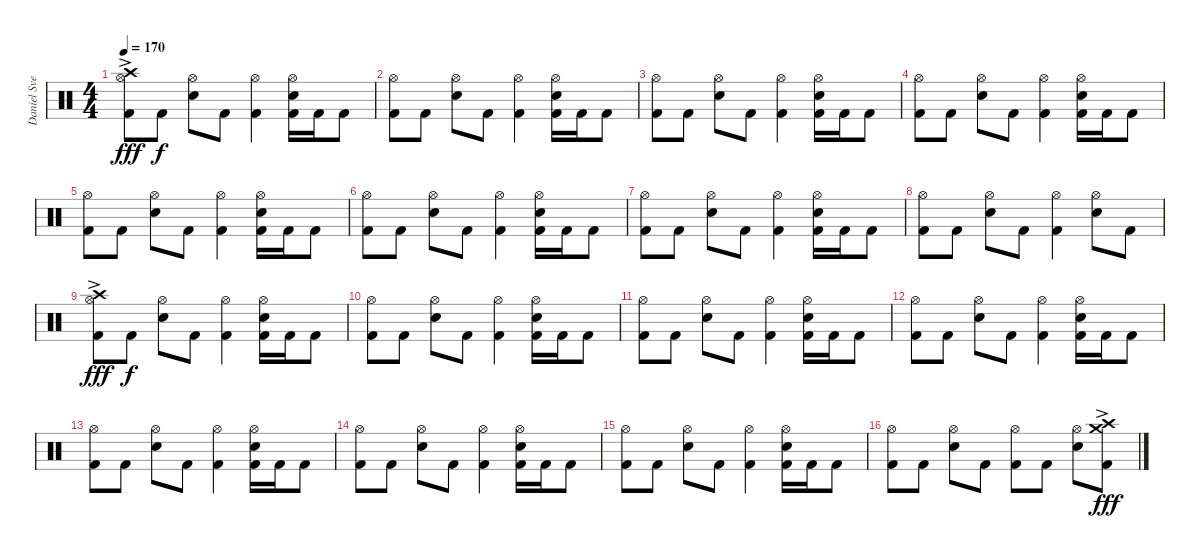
\track ("Daniel Svensson" "Daniel Sve") {instrument percussion}
\staff {score}
\articulation defaults
\ts (4 4)
\tempo 170
\clef neutral
\ks c
("Crash high (hit)"{ac} "Hi-Hat (open)" "Kick (hit) 2").8{dy fff} "Kick (hit) 2".8{dy f} ("Hi-Hat (open)" "Electric Snare (hit)").8 "Kick (hit) 2".8 ("Hi-Hat (open)" "Kick (hit) 2").4 ("Hi-Hat (open)" "Electric Snare (hit)" "Kick (hit) 2").16 "Kick (hit) 2".16 "Kick (hit) 2".8 |
("Hi-Hat (open)" "Kick (hit) 2").8 "Kick (hit) 2".8 ("Hi-Hat (open)" "Electric Snare (hit)").8 "Kick (hit) 2".8 ("Hi-Hat (open)" "Kick (hit) 2").4 ("Hi-Hat (open)" "Electric Snare (hit)" "Kick (hit) 2").16 "Kick (hit) 2".16 "Kick (hit) 2".8 |
("Hi-Hat (open)" "Kick (hit) 2").8 "Kick (hit) 2".8 ("Hi-Hat (open)" "Electric Snare (hit)").8 "Kick (hit) 2".8 ("Hi-Hat (open)" "Kick (hit) 2").4 ("Hi-Hat (open)" "Electric Snare (hit)" "Kick (hit) 2").16 "Kick (hit) 2".16 "Kick (hit) 2".8 |
("Hi-Hat (open)" "Kick (hit) 2").8 "Kick (hit) 2".8 ("Hi-Hat (open)" "Electric Snare (hit)").8 "Kick (hit) 2".8 ("Hi-Hat (open)" "Kick (hit) 2").4 ("Hi-Hat (open)" "Electric Snare (hit)" "Kick (hit) 2").16 "Kick (hit) 2".16 "Kick (hit) 2".8 |
("Hi-Hat (open)" "Kick (hit) 2").8 "Kick (hit) 2".8 ("Hi-Hat (open)" "Electric Snare (hit)").8 "Kick (hit) 2".8 ("Hi-Hat (open)" "Kick (hit) 2").4 ("Hi-Hat (open)" "Electric Snare (hit)" "Kick (hit) 2").16 "Kick (hit) 2".16 "Kick (hit) 2".8 |
("Hi-Hat (open)" "Kick (hit) 2").8 "Kick (hit) 2".8 ("Hi-Hat (open)" "Electric Snare (hit)").8 "Kick (hit) 2".8 ("Hi-Hat (open)" "Kick (hit) 2").4 ("Hi-Hat (open)" "Electric Snare (hit)" "Kick (hit) 2").16 "Kick (hit) 2".16 "Kick (hit) 2".8 |
("Hi-Hat (open)" "Kick (hit) 2").8 "Kick (hit) 2".8 ("Hi-Hat (open)" "Electric Snare (hit)").8 "Kick (hit) 2".8 ("Hi-Hat (open)" "Kick (hit) 2").4 ("Hi-Hat (open)" "Electric Snare (hit)" "Kick (hit) 2").16 "Kick (hit) 2".16 "Kick (hit) 2".8 |
("Hi-Hat (open)" "Kick (hit) 2").8 "Kick (hit) 2".8 ("Hi-Hat (open)" "Electric Snare (hit)").8 "Kick (hit) 2".8 ("Hi-Hat (open)" "Kick (hit) 2").4 ("Hi-Hat (open)" "Electric Snare (hit)").8 "Kick (hit) 2".8 |
("Crash high (hit)"{ac} "Hi-Hat (open)" "Kick (hit) 2").8{dy fff} "Kick (hit) 2".8{dy f} ("Hi-Hat (open)" "Electric Snare (hit)").8 "Kick (hit) 2".8 ("Hi-Hat (open)" "Kick (hit) 2").4 ("Hi-Hat (open)" "Electric Snare (hit)" "Kick (hit) 2").16 "Kick (hit) 2".16 "Kick (hit) 2".8 |
("Hi-Hat (open)" "Kick (hit) 2").8 "Kick (hit) 2".8 ("Hi-Hat (open)" "Electric Snare (hit)").8 "Kick (hit) 2".8 ("Hi-Hat (open)" "Kick (hit) 2").4 ("Hi-Hat (open)" "Electric Snare (hit)" "Kick (hit) 2").16 "Kick (hit) 2".16 "Kick (hit) 2".8 |
("Hi-Hat (open)" "Kick (hit) 2").8 "Kick (hit) 2".8 ("Hi-Hat (open)" "Electric Snare (hit)").8 "Kick (hit) 2".8 ("Hi-Hat (open)" "Kick (hit) 2").4 ("Hi-Hat (open)" "Electric Snare (hit)" "Kick (hit) 2").16 "Kick (hit) 2".16 "Kick (hit) 2".8 |
("Hi-Hat (open)" "Kick (hit) 2").8 "Kick (hit) 2".8 ("Hi-Hat (open)" "Electric Snare (hit)").8 "Kick (hit) 2".8 ("Hi-Hat (open)" "Kick (hit) 2").4 ("Hi-Hat (open)" "Electric Snare (hit)" "Kick (hit) 2").16 "Kick (hit) 2".16 "Kick (hit) 2".8 |
("Hi-Hat (open)" "Kick (hit) 2").8 "Kick (hit) 2".8 ("Hi-Hat (open)" "Electric Snare (hit)").8 "Kick (hit) 2".8 ("Hi-Hat (open)" "Kick (hit) 2").4 ("Hi-Hat (open)" "Electric Snare (hit)" "Kick (hit) 2").16 "Kick (hit) 2".16 "Kick (hit) 2".8 |
("Hi-Hat (open)" "Kick (hit) 2").8 "Kick (hit) 2".8 ("Hi-Hat (open)" "Electric Snare (hit)").8 "Kick (hit) 2".8 ("Hi-Hat (open)" "Kick (hit) 2").4 ("Hi-Hat (open)" "Electric Snare (hit)" "Kick (hit) 2").16 "Kick (hit) 2".16 "Kick (hit) 2".8 |
("Hi-Hat (open)" "Kick (hit) 2").8 "Kick (hit) 2".8 ("Hi-Hat (open)" "Electric Snare (hit)").8 "Kick (hit) 2".8 ("Hi-Hat (open)" "Kick (hit) 2").4 ("Hi-Hat (open)" "Electric Snare (hit)" "Kick (hit) 2").16 "Kick (hit) 2".16 "Kick (hit) 2".8 |
("Hi-Hat (open)" "Kick (hit) 2").8 "Kick (hit) 2".8 ("Hi-Hat (open)" "Electric Snare (hit)").8 "Kick (hit) 2".8 ("Hi-Hat (open)" "Kick (hit) 2").8 "Kick (hit) 2".8 ("Hi-Hat (open)" "Electric Snare (hit)").8 ("Crash medium (hit)"{ac} "Crash high (hit)"{ac} "Kick (hit) 2"{ac}).8{dy fff}
